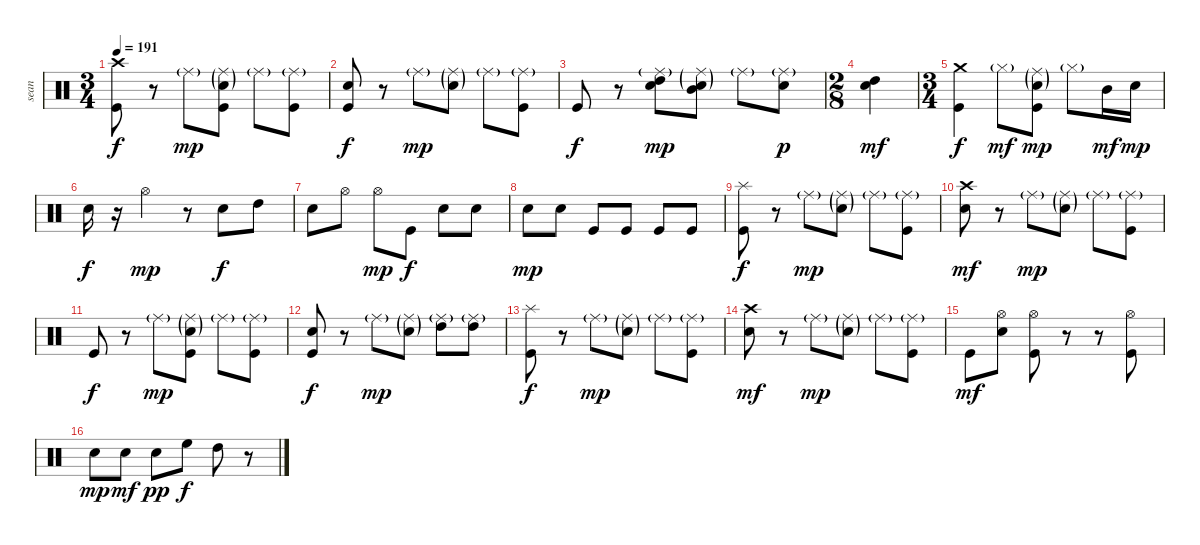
\track ("sean" "sean") {instrument percussion}
\staff {score}
\articulation defaults
\ts (3 4)
\tempo 191
\clef neutral
\ks c
("Crash high (hit)" "Kick (hit)").8{dy f} r.8 "Ride (middle)"{g}.8{dy mp} ("Electric Snare (hit)"{g} "Ride (middle)"{g} "Kick (hit)").8 "Ride (middle)"{g}.8 ("Kick (hit)" "Ride (middle)"{g}).8 |
("Electric Snare (hit)" "Kick (hit)").8{dy f} r.8 "Ride (middle)"{g}.8{dy mp} ("Electric Snare (hit)"{g} "Ride (middle)"{g}).8 "Ride (middle)"{g}.8 ("Kick (hit)" "Ride (middle)"{g}).8 |
"Kick (hit)".8{dy f} r.8 ("Electric Snare (hit)" "High Tom (hit)" "Ride (middle)"{g}).8{dy mp} ("Electric Snare (hit)"{g} "Ride (middle)"{g} "Mid Tom (hit)").8 "Ride (middle)"{g}.8 ("Electric Snare (hit)" "Ride (middle)"{g}).8{dy p} |
\ts (2 8)
("High Tom (hit)" "Electric Snare (hit)").4{dy mf} |
\ts (3 4)
("Crash medium (hit)" "Kick (hit)").4{dy f} "Hi-Hat (closed)"{g}.8{dy mf} ("Kick (hit)" "Electric Snare (hit)"{g} "Ride (middle)"{g}).8{dy mp} "Hi-Hat (closed)"{g}.8 "Mid Tom (hit)".16{dy mf} "Electric Snare (hit)".16{dy mp} |
"Electric Snare (hit)".16{dy f} r.16 "Hi-Hat (open)".4{dy mp} r.8 "Electric Snare (hit)".8{dy f} "High Tom (hit)".8 |
"Electric Snare (hit)".8 "Hi-Hat (open)".8 "Hi-Hat (open)".8{dy mp} "Kick (hit)".8{dy f} "Electric Snare (hit)".8 "Electric Snare (hit)".8 |
"Electric Snare (hit)".8{dy mp} "Electric Snare (hit)".8 "Kick (hit)".8 "Kick (hit)".8 "Kick (hit)".8 "Kick (hit)".8 |
("Splash (hit)" "Kick (hit)").8{dy f} r.8 "Ride (middle)"{g}.8{dy mp} ("Electric Snare (hit)"{g} "Ride (middle)"{g}).8 "Ride (middle)"{g}.8 ("Kick (hit)" "Ride (middle)"{g}).8 |
("Crash high (hit)" "Electric Snare (hit)").8{dy mf} r.8 "Ride (middle)"{g}.8{dy mp} ("Electric Snare (hit)"{g} "Ride (middle)"{g}).8 "Ride (middle)"{g}.8 ("Kick (hit)" "Ride (middle)"{g}).8 |
"Kick (hit)".8{dy f} r.8 "Ride (middle)"{g}.8{dy mp} ("Electric Snare (hit)"{g} "Ride (middle)"{g} "Kick (hit)").8 "Ride (middle)"{g}.8 ("Kick (hit)" "Ride (middle)"{g}).8 |
("Electric Snare (hit)" "Kick (hit)").8{dy f} r.8 "Ride (middle)"{g}.8{dy mp} ("Electric Snare (hit)"{g} "Ride (middle)"{g}).8 ("High Tom (hit)" "Ride (middle)"{g}).8 ("High Tom (hit)" "Ride (middle)"{g}).8 |
("Splash (hit)" "Kick (hit)").8{dy f} r.8 "Ride (middle)"{g}.8{dy mp} ("Electric Snare (hit)"{g} "Ride (middle)"{g}).8 "Ride (middle)"{g}.8 ("Kick (hit)" "Ride (middle)"{g}).8 |
("Crash high (hit)" "Electric Snare (hit)").8{dy mf} r.8 "Ride (middle)"{g}.8{dy mp} ("Electric Snare (hit)"{g} "Ride (middle)"{g}).8 "Ride (middle)"{g}.8 ("Kick (hit)" "Ride (middle)"{g}).8 |
"Kick (hit)".8{dy mf} ("Hi-Hat (open)" "Electric Snare (hit)").8 ("Hi-Hat (open)" "Kick (hit)").8 r.8 r.8 ("Hi-Hat (open)" "Kick (hit)").8 |
"Electric Snare (hit)".8{dy mp} "Electric Snare (hit)".8{dy mf} "Electric Snare (hit)".8{dy pp} "High Floor Tom (hit)".8{dy f} "High Tom (hit)".8 r.8
